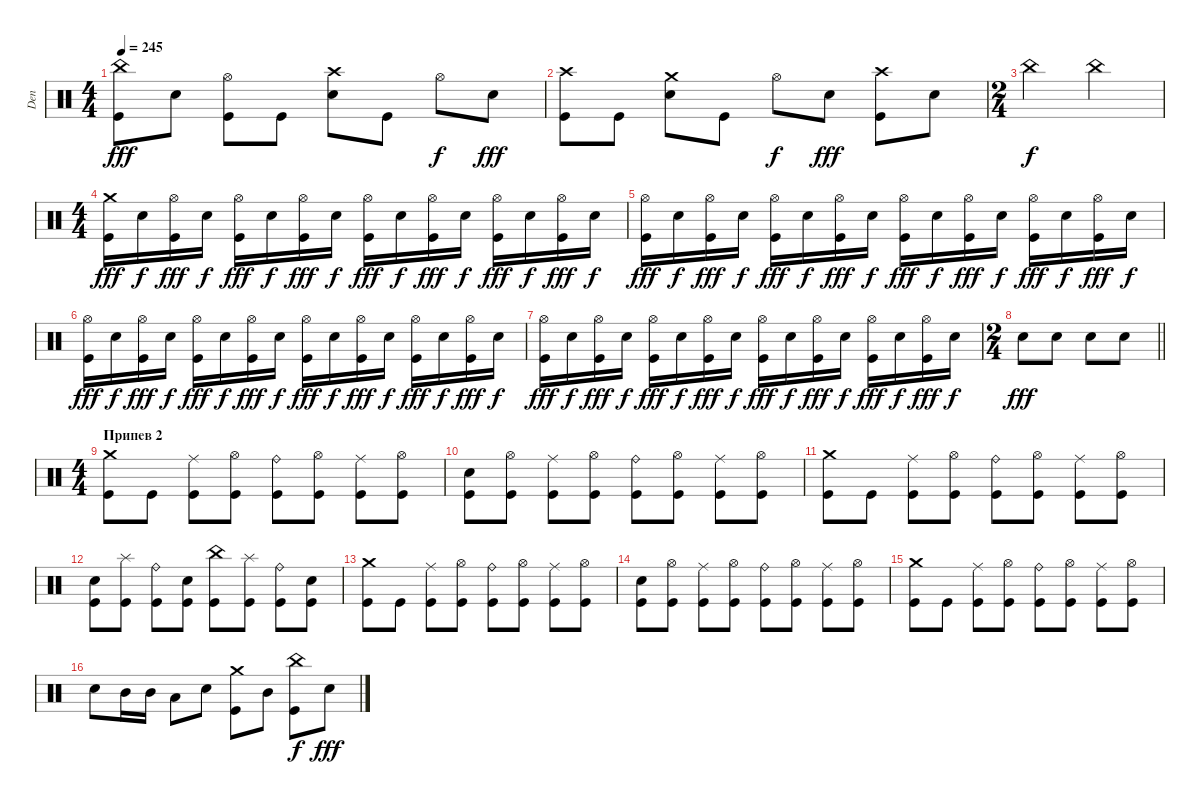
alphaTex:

\track ("Den" "Den") {instrument percussion}
\staff {score}
\articulation defaults
\ts (4 4)
\tempo 245
\clef neutral
\ks c
("China (hit)" "Kick (hit)").8{dy fff} "Electric Snare (hit)".8 ("Kick (hit)" "Hi-Hat (open)").8 "Kick (hit)".8 ("Electric Snare (hit)" "Crash high (hit)").8 "Kick (hit)".8 "Hi-Hat (open)".8{dy f} "Electric Snare (hit)".8{dy fff} |
("Kick (hit)" "Crash high (hit)").8 "Kick (hit)".8 ("Electric Snare (hit)" "Crash medium (hit)").8 "Kick (hit)".8 "Hi-Hat (open)".8{dy f} "Electric Snare (hit)".8{dy fff} ("Kick (hit)" "Crash high (hit)").8 "Electric Snare (hit)".8 |
\ts (2 4)
"China (hit)".4{dy f} "China (hit)".4 |
\ts (4 4)
("Kick (hit)" "Crash medium (hit)").16{dy fff} "Electric Snare (hit)".16{dy f} ("Kick (hit)" "Hi-Hat (open)").16{dy fff} "Electric Snare (hit)".16{dy f} ("Kick (hit)" "Hi-Hat (open)").16{dy fff} "Electric Snare (hit)".16{dy f} ("Kick (hit)" "Hi-Hat (open)").16{dy fff} "Electric Snare (hit)".16{dy f} ("Kick (hit)" "Hi-Hat (open)").16{dy fff} "Electric Snare (hit)".16{dy f} ("Kick (hit)" "Hi-Hat (open)").16{dy fff} "Electric Snare (hit)".16{dy f} ("Kick (hit)" "Hi-Hat (open)").16{dy fff} "Electric Snare (hit)".16{dy f} ("Kick (hit)" "Hi-Hat (open)").16{dy fff} "Electric Snare (hit)".16{dy f} |
("Kick (hit)" "Hi-Hat (open)").16{dy fff} "Electric Snare (hit)".16{dy f} ("Kick (hit)" "Hi-Hat (open)").16{dy fff} "Electric Snare (hit)".16{dy f} ("Kick (hit)" "Hi-Hat (open)").16{dy fff} "Electric Snare (hit)".16{dy f} ("Kick (hit)" "Hi-Hat (open)").16{dy fff} "Electric Snare (hit)".16{dy f} ("Kick (hit)" "Hi-Hat (open)").16{dy fff} "Electric Snare (hit)".16{dy f} ("Kick (hit)" "Hi-Hat (open)").16{dy fff} "Electric Snare (hit)".16{dy f} ("Kick (hit)" "Hi-Hat (open)").16{dy fff} "Electric Snare (hit)".16{dy f} ("Kick (hit)" "Hi-Hat (open)").16{dy fff} "Electric Snare (hit)".16{dy f} |
("Kick (hit)" "Hi-Hat (open)").16{dy fff} "Electric Snare (hit)".16{dy f} ("Kick (hit)" "Hi-Hat (open)").16{dy fff} "Electric Snare (hit)".16{dy f} ("Kick (hit)" "Hi-Hat (open)").16{dy fff} "Electric Snare (hit)".16{dy f} ("Kick (hit)" "Hi-Hat (open)").16{dy fff} "Electric Snare (hit)".16{dy f} ("Kick (hit)" "Hi-Hat (open)").16{dy fff} "Electric Snare (hit)".16{dy f} ("Kick (hit)" "Hi-Hat (open)").16{dy fff} "Electric Snare (hit)".16{dy f} ("Kick (hit)" "Hi-Hat (open)").16{dy fff} "Electric Snare (hit)".16{dy f} ("Kick (hit)" "Hi-Hat (open)").16{dy fff} "Electric Snare (hit)".16{dy f} |
("Kick (hit)" "Hi-Hat (open)").16{dy fff} "Electric Snare (hit)".16{dy f} ("Kick (hit)" "Hi-Hat (open)").16{dy fff} "Electric Snare (hit)".16{dy f} ("Kick (hit)" "Hi-Hat (open)").16{dy fff} "Electric Snare (hit)".16{dy f} ("Kick (hit)" "Hi-Hat (open)").16{dy fff} "Electric Snare (hit)".16{dy f} ("Kick (hit)" "Hi-Hat (open)").16{dy fff} "Electric Snare (hit)".16{dy f} ("Kick (hit)" "Hi-Hat (open)").16{dy fff} "Electric Snare (hit)".16{dy f} ("Kick (hit)" "Hi-Hat (open)").16{dy fff} "Electric Snare (hit)".16{dy f} ("Kick (hit)" "Hi-Hat (open)").16{dy fff} "Electric Snare (hit)".16{dy f} |
\ts (2 4)
\barLineRight lightlight "Electric Snare (hit)".8{dy fff} "Electric Snare (hit)".8 "Electric Snare (hit)".8 "Electric Snare (hit)".8
|
\ts (4 4)
\section ("" "Припев 2")
("Kick (hit)" "Crash medium (hit)").8 "Kick (hit)".8 ("Kick (hit)" "Ride (middle)").8 ("Kick (hit)" "Hi-Hat (open)").8 ("Kick (hit)" "Ride (bell)").8 ("Kick (hit)" "Hi-Hat (open)").8 ("Kick (hit)" "Ride (middle)").8 ("Kick (hit)" "Hi-Hat (open)").8 |
("Kick (hit)" "Electric Snare (hit)").8 ("Kick (hit)" "Hi-Hat (open)").8 ("Ride (middle)" "Kick (hit)").8 ("Kick (hit)" "Hi-Hat (open)").8 ("Kick (hit)" "Ride (bell)").8 ("Kick (hit)" "Hi-Hat (open)").8 ("Kick (hit)" "Ride (middle)").8 ("Kick (hit)" "Hi-Hat (open)").8 |
("Kick (hit)" "Crash medium (hit)").8 "Kick (hit)".8 ("Kick (hit)" "Ride (middle)").8 ("Kick (hit)" "Hi-Hat (open)").8 ("Kick (hit)" "Ride (bell)").8 ("Kick (hit)" "Hi-Hat (open)").8 ("Kick (hit)" "Ride (middle)").8 ("Kick (hit)" "Hi-Hat (open)").8 |
("Kick (hit)" "Electric Snare (hit)").8 ("Kick (hit)" "Splash (hit)").8 ("Ride (bell)" "Kick (hit)").8 ("Kick (hit)" "Electric Snare (hit)").8 ("Kick (hit)" "China (hit)").8 ("Kick (hit)" "Splash (hit)").8 ("Kick (hit)" "Ride (bell)").8 ("Kick (hit)" "Electric Snare (hit)").8 |
("Kick (hit)" "Crash medium (hit)").8 "Kick (hit)".8 ("Kick (hit)" "Ride (middle)").8 ("Kick (hit)" "Hi-Hat (open)").8 ("Kick (hit)" "Ride (bell)").8 ("Kick (hit)" "Hi-Hat (open)").8 ("Kick (hit)" "Ride (middle)").8 ("Kick (hit)" "Hi-Hat (open)").8 |
("Kick (hit)" "Electric Snare (hit)").8 ("Kick (hit)" "Hi-Hat (open)").8 ("Ride (middle)" "Kick (hit)").8 ("Kick (hit)" "Hi-Hat (open)").8 ("Kick (hit)" "Ride (bell)").8 ("Kick (hit)" "Hi-Hat (open)").8 ("Kick (hit)" "Ride (middle)").8 ("Kick (hit)" "Hi-Hat (open)").8 |
("Kick (hit)" "Crash medium (hit)").8 "Kick (hit)".8 ("Kick (hit)" "Ride (middle)").8 ("Kick (hit)" "Hi-Hat (open)").8 ("Kick (hit)" "Ride (bell)").8 ("Kick (hit)" "Hi-Hat (open)").8 ("Kick (hit)" "Ride (middle)").8 ("Kick (hit)" "Hi-Hat (open)").8 |
"Electric Snare (hit)".8 "Mid Tom (hit)".16 "Mid Tom (hit)".16 "Low Tom (hit)".8 "Electric Snare (hit)".8 ("Crash medium (hit)" "Kick (hit)").8 "Mid Tom (hit)".8 ("China (hit)" "Kick (hit)").8{dy f} "Electric Snare (hit)".8{dy fff}
